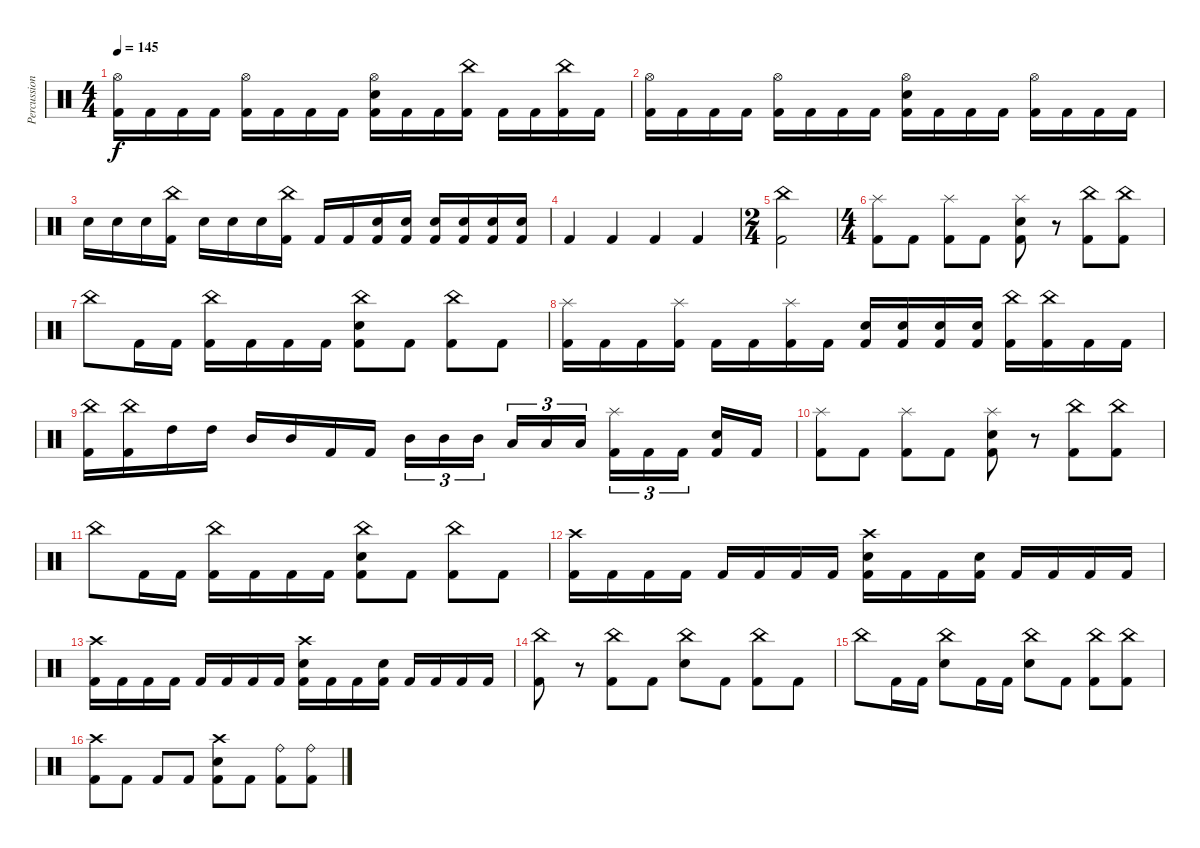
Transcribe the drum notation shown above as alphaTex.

\track ("Percussion" "Percussion") {instrument percussion}
\staff {score}
\articulation defaults
\ts (4 4)
\tempo 145
\clef neutral
\ks c
("Hi-Hat (open)" "Kick (hit) 2").16{dy f} "Kick (hit) 2".16 "Kick (hit) 2".16 "Kick (hit) 2".16 ("Hi-Hat (open)" "Kick (hit) 2").16 "Kick (hit) 2".16 "Kick (hit) 2".16 "Kick (hit) 2".16 ("Hi-Hat (open)" "Snare (hit) 2" "Kick (hit) 2").16 "Kick (hit) 2".16 "Kick (hit) 2".16 ("China (hit)" "Kick (hit) 2").16 "Kick (hit) 2".16 "Kick (hit) 2".16 ("China (hit)" "Kick (hit) 2").16 "Kick (hit) 2".16 |
("Hi-Hat (open)" "Kick (hit) 2").16 "Kick (hit) 2".16 "Kick (hit) 2".16 "Kick (hit) 2".16 ("Hi-Hat (open)" "Kick (hit) 2").16 "Kick (hit) 2".16 "Kick (hit) 2".16 "Kick (hit) 2".16 ("Hi-Hat (open)" "Snare (hit) 2" "Kick (hit) 2").16 "Kick (hit) 2".16 "Kick (hit) 2".16 "Kick (hit) 2".16 ("Hi-Hat (open)" "Kick (hit) 2").16 "Kick (hit) 2".16 "Kick (hit) 2".16 "Kick (hit) 2".16 |
"Snare (hit) 2".16 "Snare (hit) 2".16 "Snare (hit) 2".16 ("China (hit)" "Kick (hit) 2").16 "Snare (hit) 2".16 "Snare (hit) 2".16 "Snare (hit) 2".16 ("China (hit)" "Kick (hit) 2").16 "Kick (hit) 2".16 "Kick (hit) 2".16 ("Snare (hit) 2" "Kick (hit) 2").16 ("Snare (hit) 2" "Kick (hit) 2").16 ("Snare (hit) 2" "Kick (hit) 2").16 ("Snare (hit) 2" "Kick (hit) 2").16 ("Snare (hit) 2" "Kick (hit) 2").16 ("Snare (hit) 2" "Kick (hit) 2").16 |
"Kick (hit) 2".4 "Kick (hit) 2".4 "Kick (hit) 2".4 "Kick (hit) 2".4 |
\ts (2 4)
("China (hit)" "Kick (hit) 2").2 |
\ts (4 4)
("Splash (hit)" "Kick (hit) 2").8 "Kick (hit) 2".8 ("Splash (hit)" "Kick (hit) 2").8 "Kick (hit) 2".8 ("Splash (hit)" "Snare (hit) 2" "Kick (hit) 2").8 r.8 ("China (hit)" "Kick (hit) 2").8 ("China (hit)" "Kick (hit) 2").8 |
"China (hit)".8 "Kick (hit) 2".16 "Kick (hit) 2".16 ("China (hit)" "Kick (hit) 2").16 "Kick (hit) 2".16 "Kick (hit) 2".16 "Kick (hit) 2".16 ("China (hit)" "Snare (hit) 2" "Kick (hit) 2").8 "Kick (hit) 2".8 ("China (hit)" "Kick (hit) 2").8 "Kick (hit) 2".8 |
("Splash (hit)" "Kick (hit) 2").16 "Kick (hit) 2".16 "Kick (hit) 2".16 ("Splash (hit)" "Kick (hit) 2").16 "Kick (hit) 2".16 "Kick (hit) 2".16 ("Splash (hit)" "Kick (hit) 2").16 "Kick (hit) 2".16 ("Snare (hit) 2" "Kick (hit) 2").16 ("Snare (hit) 2" "Kick (hit) 2").16 ("Snare (hit) 2" "Kick (hit) 2").16 ("Snare (hit) 2" "Kick (hit) 2").16 ("China (hit)" "Kick (hit) 2").16 ("China (hit)" "Kick (hit) 2").16 "Kick (hit) 2".16 "Kick (hit) 2".16 |
("China (hit)" "Kick (hit) 2").16 ("China (hit)" "Kick (hit) 2").16 "High Tom (hit)".16 "High Tom (hit)".16 "Mid Tom (hit)".16 "Mid Tom (hit)".16 "Kick (hit) 2".16 "Kick (hit) 2".16 "Mid Tom (hit)".16{tu (3 2)} "Mid Tom (hit)".16{tu (3 2)} "Mid Tom (hit)".16{tu (3 2) beam splitsecondary} "Low Tom (hit)".16{tu (3 2)} "Low Tom (hit)".16{tu (3 2)} "Low Tom (hit)".16{tu (3 2)} ("Splash (hit)" "Kick (hit) 2").16{tu (3 2)} "Kick (hit) 2".16{tu (3 2)} "Kick (hit) 2".16{tu (3 2) beam splitsecondary} ("Snare (hit) 2" "Kick (hit) 2").16 "Kick (hit) 2".16 |
("Splash (hit)" "Kick (hit) 2").8 "Kick (hit) 2".8 ("Splash (hit)" "Kick (hit) 2").8 "Kick (hit) 2".8 ("Splash (hit)" "Snare (hit) 2" "Kick (hit) 2").8 r.8 ("China (hit)" "Kick (hit) 2").8 ("China (hit)" "Kick (hit) 2").8 |
"China (hit)".8 "Kick (hit) 2".16 "Kick (hit) 2".16 ("China (hit)" "Kick (hit) 2").16 "Kick (hit) 2".16 "Kick (hit) 2".16 "Kick (hit) 2".16 ("China (hit)" "Snare (hit) 2" "Kick (hit) 2").8 "Kick (hit) 2".8 ("China (hit)" "Kick (hit) 2").8 "Kick (hit) 2".8 |
("Crash high (hit)" "Kick (hit) 2").16 "Kick (hit) 2".16 "Kick (hit) 2".16 "Kick (hit) 2".16 "Kick (hit) 2".16 "Kick (hit) 2".16 "Kick (hit) 2".16 "Kick (hit) 2".16 ("Crash high (hit)" "Snare (hit) 2" "Kick (hit) 2").16 "Kick (hit) 2".16 "Kick (hit) 2".16 ("Snare (hit) 2" "Kick (hit) 2").16 "Kick (hit) 2".16 "Kick (hit) 2".16 "Kick (hit) 2".16 "Kick (hit) 2".16 |
("Crash high (hit)" "Kick (hit) 2").16 "Kick (hit) 2".16 "Kick (hit) 2".16 "Kick (hit) 2".16 "Kick (hit) 2".16 "Kick (hit) 2".16 "Kick (hit) 2".16 "Kick (hit) 2".16 ("Crash high (hit)" "Snare (hit) 2" "Kick (hit) 2").16 "Kick (hit) 2".16 "Kick (hit) 2".16 ("Snare (hit) 2" "Kick (hit) 2").16 "Kick (hit) 2".16 "Kick (hit) 2".16 "Kick (hit) 2".16 "Kick (hit) 2".16 |
("China (hit)" "Kick (hit) 2").8 r.8 ("China (hit)" "Kick (hit) 2").8 "Kick (hit) 2".8 ("China (hit)" "Snare (hit) 2").8 "Kick (hit) 2".8 ("China (hit)" "Kick (hit) 2").8 "Kick (hit) 2".8 |
"China (hit)".8 "Kick (hit) 2".16 "Kick (hit) 2".16 ("China (hit)" "Snare (hit) 2").8 "Kick (hit) 2".16 "Kick (hit) 2".16 ("China (hit)" "Snare (hit) 2").8 "Kick (hit) 2".8 ("China (hit)" "Kick (hit) 2").8 ("China (hit)" "Kick (hit) 2").8 |
("Crash high (hit)" "Kick (hit) 2").8 "Kick (hit) 2".8 "Kick (hit) 2".8 "Kick (hit) 2".8 ("Crash high (hit)" "Snare (hit) 2" "Kick (hit) 2").8 "Kick (hit) 2".8 ("Ride (bell)" "Kick (hit) 2").8 ("Ride (bell)" "Kick (hit) 2").8
